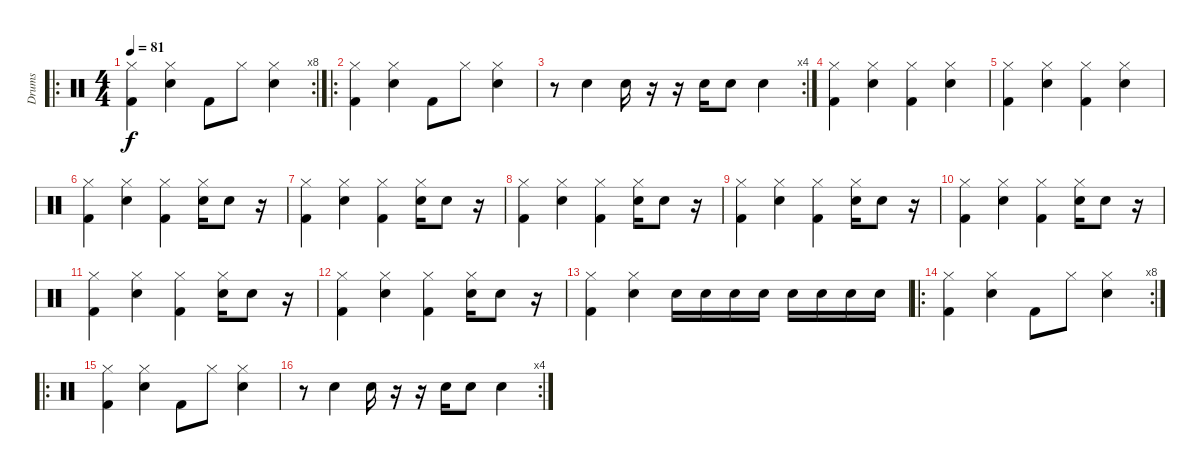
\track ("Drums" "Drums") {instrument percussion}
\staff {score}
\articulation defaults
\ro
\rc 8
\ts (4 4)
\tempo 81
\clef neutral
\ks c
("Kick (hit) 2" "Hi-Hat (closed)").4{dy f} ("Hi-Hat (closed)" "Electric Snare (hit)").4 "Kick (hit) 2".8 "Hi-Hat (closed)".8 ("Hi-Hat (closed)" "Electric Snare (hit)").4 |
\ro
("Kick (hit) 2" "Hi-Hat (closed)").4 ("Hi-Hat (closed)" "Electric Snare (hit)").4 "Kick (hit) 2".8 "Hi-Hat (closed)".8 ("Hi-Hat (closed)" "Electric Snare (hit)").4 |
\rc 4
r.8 "Electric Snare (hit)".4 "Electric Snare (hit)".16 r.16 r.16 "Electric Snare (hit)".16 "Electric Snare (hit)".8 "Electric Snare (hit)".4 |
("Hi-Hat (closed)" "Kick (hit) 2").4 ("Hi-Hat (closed)" "Electric Snare (hit)").4 ("Hi-Hat (closed)" "Kick (hit) 2").4 ("Hi-Hat (closed)" "Electric Snare (hit)").4 |
("Hi-Hat (closed)" "Kick (hit) 2").4 ("Hi-Hat (closed)" "Electric Snare (hit)").4 ("Hi-Hat (closed)" "Kick (hit) 2").4 ("Hi-Hat (closed)" "Electric Snare (hit)").4 |
("Hi-Hat (closed)" "Kick (hit) 2").4 ("Hi-Hat (closed)" "Electric Snare (hit)").4 ("Hi-Hat (closed)" "Kick (hit) 2").4 ("Hi-Hat (closed)" "Electric Snare (hit)").16 "Electric Snare (hit)".8 r.16 |
("Hi-Hat (closed)" "Kick (hit) 2").4 ("Hi-Hat (closed)" "Electric Snare (hit)").4 ("Hi-Hat (closed)" "Kick (hit) 2").4 ("Hi-Hat (closed)" "Electric Snare (hit)").16 "Electric Snare (hit)".8 r.16 |
("Hi-Hat (closed)" "Kick (hit) 2").4 ("Hi-Hat (closed)" "Electric Snare (hit)").4 ("Hi-Hat (closed)" "Kick (hit) 2").4 ("Hi-Hat (closed)" "Electric Snare (hit)").16 "Electric Snare (hit)".8 r.16 |
("Hi-Hat (closed)" "Kick (hit) 2").4 ("Hi-Hat (closed)" "Electric Snare (hit)").4 ("Hi-Hat (closed)" "Kick (hit) 2").4 ("Hi-Hat (closed)" "Electric Snare (hit)").16 "Electric Snare (hit)".8 r.16 |
("Hi-Hat (closed)" "Kick (hit) 2").4 ("Hi-Hat (closed)" "Electric Snare (hit)").4 ("Hi-Hat (closed)" "Kick (hit) 2").4 ("Hi-Hat (closed)" "Electric Snare (hit)").16 "Electric Snare (hit)".8 r.16 |
("Hi-Hat (closed)" "Kick (hit) 2").4 ("Hi-Hat (closed)" "Electric Snare (hit)").4 ("Hi-Hat (closed)" "Kick (hit) 2").4 ("Hi-Hat (closed)" "Electric Snare (hit)").16 "Electric Snare (hit)".8 r.16 |
("Hi-Hat (closed)" "Kick (hit) 2").4 ("Hi-Hat (closed)" "Electric Snare (hit)").4 ("Hi-Hat (closed)" "Kick (hit) 2").4 ("Hi-Hat (closed)" "Electric Snare (hit)").16 "Electric Snare (hit)".8 r.16 |
("Hi-Hat (closed)" "Kick (hit) 2").4 ("Hi-Hat (closed)" "Electric Snare (hit)").4 "Electric Snare (hit)".16 "Electric Snare (hit)".16 "Electric Snare (hit)".16 "Electric Snare (hit)".16 "Electric Snare (hit)".16 "Electric Snare (hit)".16 "Electric Snare (hit)".16 "Electric Snare (hit)".16 |
\ro
\rc 8
("Kick (hit) 2" "Hi-Hat (closed)").4 ("Hi-Hat (closed)" "Electric Snare (hit)").4 "Kick (hit) 2".8 "Hi-Hat (closed)".8 ("Hi-Hat (closed)" "Electric Snare (hit)").4 |
\ro
("Kick (hit) 2" "Hi-Hat (closed)").4 ("Hi-Hat (closed)" "Electric Snare (hit)").4 "Kick (hit) 2".8 "Hi-Hat (closed)".8 ("Hi-Hat (closed)" "Electric Snare (hit)").4 |
\rc 4
r.8 "Electric Snare (hit)".4 "Electric Snare (hit)".16 r.16 r.16 "Electric Snare (hit)".16 "Electric Snare (hit)".8 "Electric Snare (hit)".4
